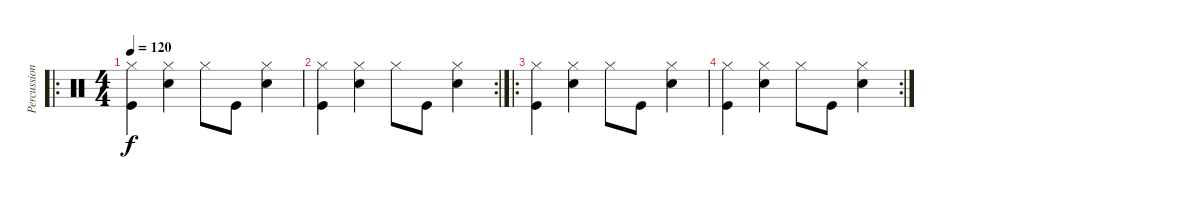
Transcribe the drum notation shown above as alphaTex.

\track ("Percussion" "Percussion") {instrument percussion}
\staff {score}
\articulation defaults
\ro
\ts (4 4)
\tempo 120
\clef neutral
\ks c
("Hi-Hat (closed)" "Kick (hit)").4{dy f} ("Hi-Hat (closed)" "Snare (hit) 2").4 "Hi-Hat (closed)".8 "Kick (hit)".8 ("Hi-Hat (closed)" "Snare (hit) 2").4 |
\rc 2
("Hi-Hat (closed)" "Kick (hit)").4 ("Hi-Hat (closed)" "Snare (hit) 2").4 "Hi-Hat (closed)".8 "Kick (hit)".8 ("Hi-Hat (closed)" "Snare (hit) 2").4 |
\ro
("Hi-Hat (closed)" "Kick (hit)").4 ("Hi-Hat (closed)" "Snare (hit) 2").4 "Hi-Hat (closed)".8 "Kick (hit)".8 ("Hi-Hat (closed)" "Snare (hit) 2").4 |
\rc 2
("Hi-Hat (closed)" "Kick (hit)").4 ("Hi-Hat (closed)" "Snare (hit) 2").4 "Hi-Hat (closed)".8 "Kick (hit)".8 ("Hi-Hat (closed)" "Snare (hit) 2").4
